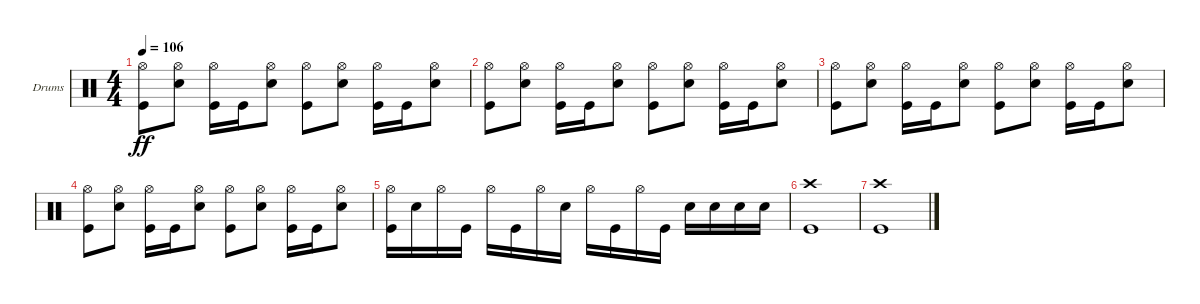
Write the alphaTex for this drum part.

\defaultSystemsLayout 4
\bracketExtendMode groupsimilarinstruments
\firstSystemTrackNameOrientation horizontal
\otherSystemsTrackNameOrientation horizontal
\track ("Drumkit" "Drums") {instrument percussion}
\staff {score}
\articulation defaults
\ts (4 4)
\tempo 106
\clef neutral
\scale
0.333333
\ks c
("Kick (hit)" "Hi-Hat (open)").8{dy ff} ("Snare (hit) 2" "Hi-Hat (open)").8 ("Kick (hit)" "Hi-Hat (open)").16 "Kick (hit)".16 ("Snare (hit) 2" "Hi-Hat (open)").8 ("Kick (hit)" "Hi-Hat (open)").8 ("Snare (hit) 2" "Hi-Hat (open)").8 ("Kick (hit)" "Hi-Hat (open)").16 "Kick (hit)".16 ("Snare (hit) 2" "Hi-Hat (open)").8 |
\scale
0.333333 ("Kick (hit)" "Hi-Hat (open)").8 ("Snare (hit) 2" "Hi-Hat (open)").8 ("Kick (hit)" "Hi-Hat (open)").16 "Kick (hit)".16 ("Snare (hit) 2" "Hi-Hat (open)").8 ("Kick (hit)" "Hi-Hat (open)").8 ("Snare (hit) 2" "Hi-Hat (open)").8 ("Kick (hit)" "Hi-Hat (open)").16 "Kick (hit)".16 ("Snare (hit) 2" "Hi-Hat (open)").8 |
\scale
0.333333 ("Kick (hit)" "Hi-Hat (open)").8 ("Snare (hit) 2" "Hi-Hat (open)").8 ("Kick (hit)" "Hi-Hat (open)").16 "Kick (hit)".16 ("Snare (hit) 2" "Hi-Hat (open)").8 ("Kick (hit)" "Hi-Hat (open)").8 ("Snare (hit) 2" "Hi-Hat (open)").8 ("Kick (hit)" "Hi-Hat (open)").16 "Kick (hit)".16 ("Snare (hit) 2" "Hi-Hat (open)").8 |
\scale
0.333333 ("Kick (hit)" "Hi-Hat (open)").8 ("Snare (hit) 2" "Hi-Hat (open)").8 ("Kick (hit)" "Hi-Hat (open)").16 "Kick (hit)".16 ("Snare (hit) 2" "Hi-Hat (open)").8 ("Kick (hit)" "Hi-Hat (open)").8 ("Snare (hit) 2" "Hi-Hat (open)").8 ("Kick (hit)" "Hi-Hat (open)").16 "Kick (hit)".16 ("Snare (hit) 2" "Hi-Hat (open)").8 |
\scale
0.333333 ("Kick (hit)" "Hi-Hat (open)").16 "Snare (hit) 2".16 "Hi-Hat (open)".16 "Kick (hit)".16 "Hi-Hat (open)".16 "Kick (hit)".16 "Hi-Hat (open)".16 "Snare (hit) 2".16 "Hi-Hat (open)".16 "Kick (hit)".16 "Hi-Hat (open)".16 "Kick (hit)".16 "Snare (hit) 2".16 "Snare (hit) 2".16 "Snare (hit) 2".16 "Snare (hit) 2".16 |
\scale
0.333333 ("Kick (hit)" "Crash high (hit)").1 |
("Kick (hit)" "Crash high (hit)").1
